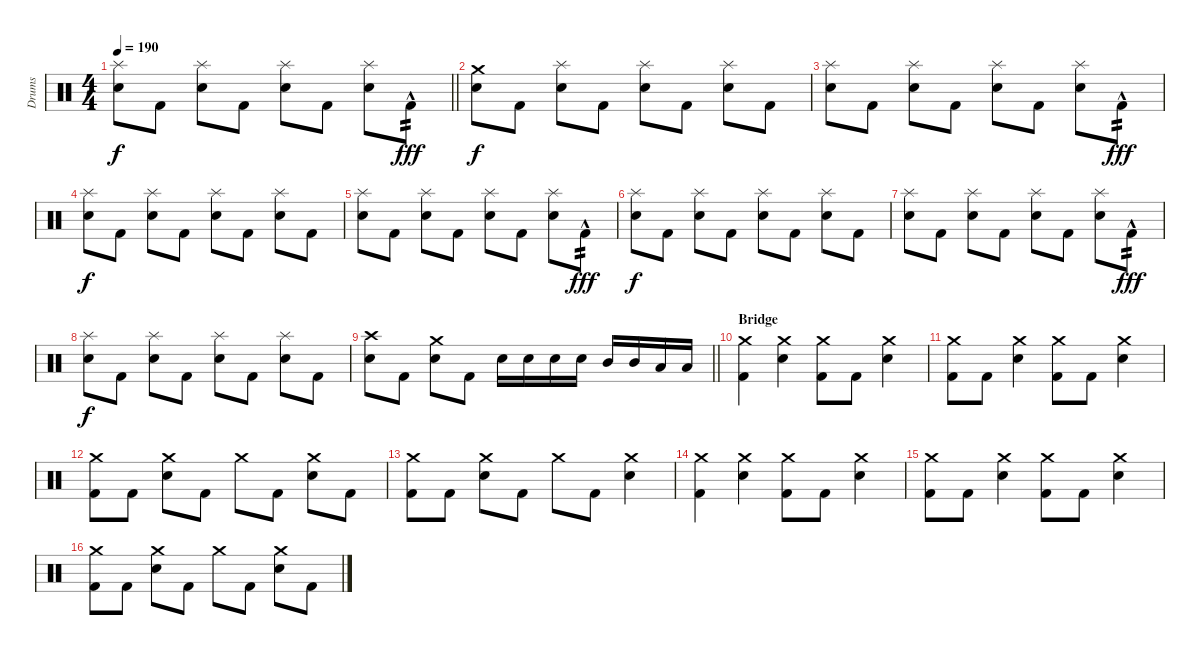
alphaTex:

\track ("Drums" "Drums") {instrument percussion}
\staff {score}
\articulation defaults
\ts (4 4)
\tempo 190
\clef neutral
\barLineRight lightlight
\ks c
("Snare (hit) 2" "Splash (hit)").8{dy f} "Kick (hit) 2".8 ("Snare (hit) 2" "Splash (hit)").8 "Kick (hit) 2".8 ("Snare (hit) 2" "Splash (hit)").8 "Kick (hit) 2".8 ("Snare (hit) 2" "Splash (hit)").8 "Kick (hit) 2"{hac}.8{tp 2 dy fff} |
\section ("" "")
("Snare (hit) 2" "Crash medium (hit)").8{dy f} "Kick (hit) 2".8 ("Snare (hit) 2" "Splash (hit)").8 "Kick (hit) 2".8 ("Snare (hit) 2" "Splash (hit)").8 "Kick (hit) 2".8 ("Snare (hit) 2" "Splash (hit)").8 "Kick (hit) 2".8 |
("Snare (hit) 2" "Splash (hit)").8 "Kick (hit) 2".8 ("Snare (hit) 2" "Splash (hit)").8 "Kick (hit) 2".8 ("Snare (hit) 2" "Splash (hit)").8 "Kick (hit) 2".8 ("Snare (hit) 2" "Splash (hit)").8 "Kick (hit) 2"{hac}.8{tp 2 dy fff} |
("Snare (hit) 2" "Splash (hit)").8{dy f} "Kick (hit) 2".8 ("Snare (hit) 2" "Splash (hit)").8 "Kick (hit) 2".8 ("Snare (hit) 2" "Splash (hit)").8 "Kick (hit) 2".8 ("Snare (hit) 2" "Splash (hit)").8 "Kick (hit) 2".8 |
("Snare (hit) 2" "Splash (hit)").8 "Kick (hit) 2".8 ("Snare (hit) 2" "Splash (hit)").8 "Kick (hit) 2".8 ("Snare (hit) 2" "Splash (hit)").8 "Kick (hit) 2".8 ("Snare (hit) 2" "Splash (hit)").8 "Kick (hit) 2"{hac}.8{tp 2 dy fff} |
("Snare (hit) 2" "Splash (hit)").8{dy f} "Kick (hit) 2".8 ("Snare (hit) 2" "Splash (hit)").8 "Kick (hit) 2".8 ("Snare (hit) 2" "Splash (hit)").8 "Kick (hit) 2".8 ("Snare (hit) 2" "Splash (hit)").8 "Kick (hit) 2".8 |
("Snare (hit) 2" "Splash (hit)").8 "Kick (hit) 2".8 ("Snare (hit) 2" "Splash (hit)").8 "Kick (hit) 2".8 ("Snare (hit) 2" "Splash (hit)").8 "Kick (hit) 2".8 ("Snare (hit) 2" "Splash (hit)").8 "Kick (hit) 2"{hac}.8{tp 2 dy fff} |
("Snare (hit) 2" "Splash (hit)").8{dy f} "Kick (hit) 2".8 ("Snare (hit) 2" "Splash (hit)").8 "Kick (hit) 2".8 ("Snare (hit) 2" "Splash (hit)").8 "Kick (hit) 2".8 ("Snare (hit) 2" "Splash (hit)").8 "Kick (hit) 2".8 |
\barLineRight lightlight
("Snare (hit) 2" "Crash high (hit)").8 "Kick (hit) 2".8 ("Snare (hit) 2" "Crash medium (hit)").8 "Kick (hit) 2".8 "Snare (hit) 2".16 "Snare (hit) 2".16 "Snare (hit) 2".16 "Snare (hit) 2".16 "Mid Tom (hit)".16 "Mid Tom (hit)".16 "Low Tom (hit)".16 "Low Tom (hit)".16 |
\section ("" "Bridge")
("Kick (hit) 2" "Crash medium (hit)").4 ("Snare (hit) 2" "Crash medium (hit)").4 ("Kick (hit) 2" "Crash medium (hit)").8 "Kick (hit) 2".8 ("Snare (hit) 2" "Crash medium (hit)").4 |
("Kick (hit) 2" "Crash medium (hit)").8 "Kick (hit) 2".8 ("Snare (hit) 2" "Crash medium (hit)").4 ("Kick (hit) 2" "Crash medium (hit)").8 "Kick (hit) 2".8 ("Snare (hit) 2" "Crash medium (hit)").4 |
("Kick (hit) 2" "Crash medium (hit)").8 "Kick (hit) 2".8 ("Snare (hit) 2" "Crash medium (hit)").8 "Kick (hit) 2".8 "Crash medium (hit)".8 "Kick (hit) 2".8 ("Snare (hit) 2" "Crash medium (hit)").8 "Kick (hit) 2".8 |
("Kick (hit) 2" "Crash medium (hit)").8 "Kick (hit) 2".8 ("Snare (hit) 2" "Crash medium (hit)").8 "Kick (hit) 2".8 "Crash medium (hit)".8 "Kick (hit) 2".8 ("Snare (hit) 2" "Crash medium (hit)").4 |
("Kick (hit) 2" "Crash medium (hit)").4 ("Snare (hit) 2" "Crash medium (hit)").4 ("Kick (hit) 2" "Crash medium (hit)").8 "Kick (hit) 2".8 ("Snare (hit) 2" "Crash medium (hit)").4 |
("Kick (hit) 2" "Crash medium (hit)").8 "Kick (hit) 2".8 ("Snare (hit) 2" "Crash medium (hit)").4 ("Kick (hit) 2" "Crash medium (hit)").8 "Kick (hit) 2".8 ("Snare (hit) 2" "Crash medium (hit)").4 |
("Kick (hit) 2" "Crash medium (hit)").8 "Kick (hit) 2".8 ("Snare (hit) 2" "Crash medium (hit)").8 "Kick (hit) 2".8 "Crash medium (hit)".8 "Kick (hit) 2".8 ("Snare (hit) 2" "Crash medium (hit)").8 "Kick (hit) 2".8
